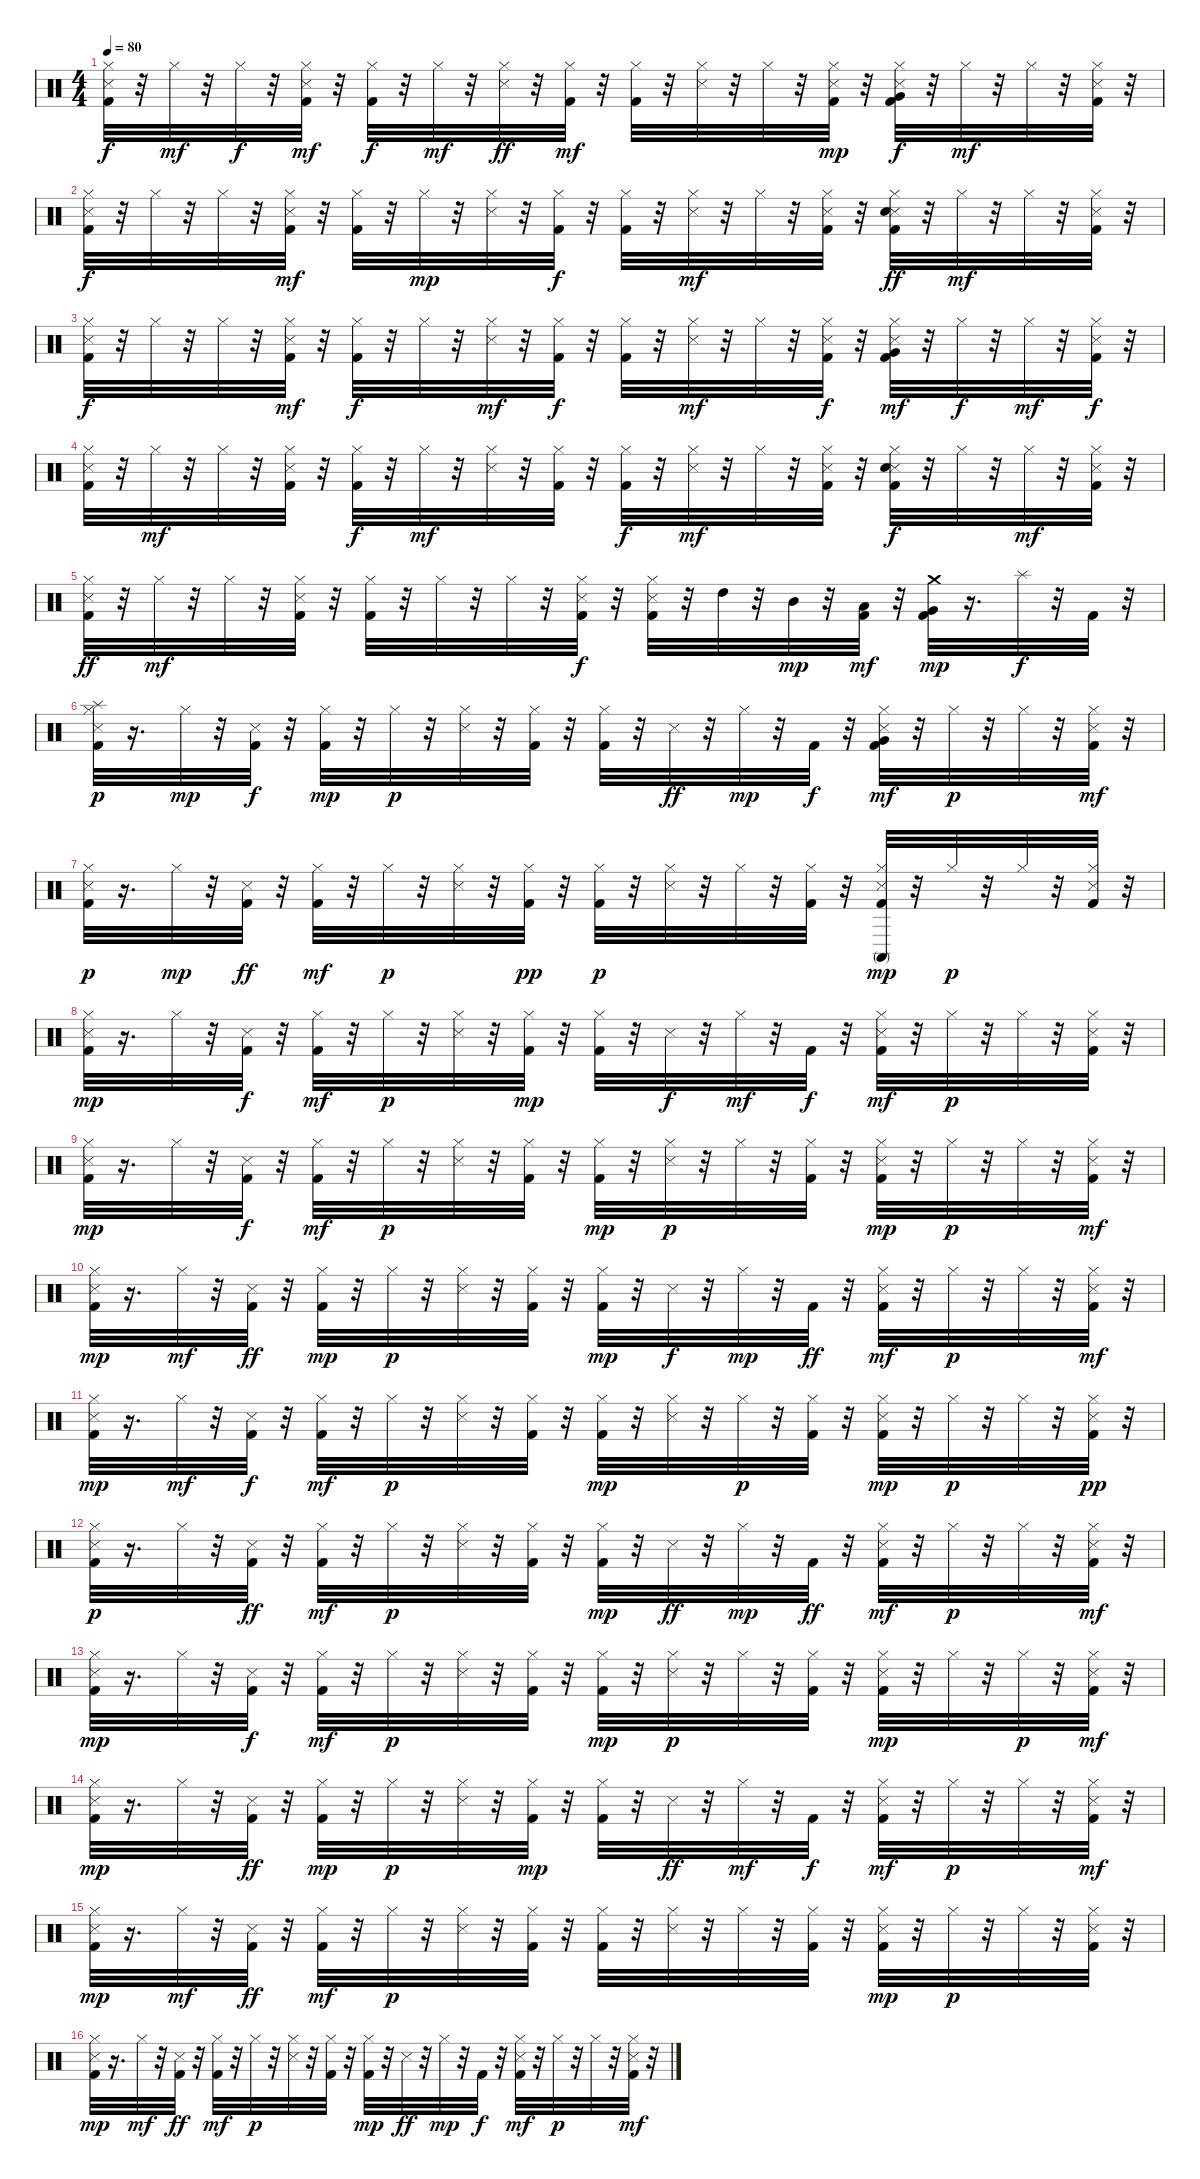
\track "" {instrument percussion}
\staff {score}
\articulation defaults
\ts (4 4)
\tempo 80
\clef neutral
\ks c
("Kick (hit) 2" "Snare (side stick) 3" "Hi-Hat (closed)").32{dy f} r.32 "Hi-Hat (closed)".32{dy mf} r.32 "Hi-Hat (closed)".32{dy f} r.32 ("Kick (hit) 2" "Snare (side stick) 3" "Hi-Hat (closed)").32{dy mf} r.32 ("Kick (hit) 2" "Hi-Hat (closed)").32{dy f} r.32 "Hi-Hat (closed)".32{dy mf} r.32 ("Snare (side stick) 3" "Hi-Hat (closed)").32{dy ff} r.32 ("Kick (hit) 2" "Hi-Hat (closed)").32{dy mf} r.32 ("Kick (hit) 2" "Hi-Hat (closed)").32 r.32 ("Snare (side stick) 3" "Hi-Hat (closed)").32 r.32 "Hi-Hat (closed)".32 r.32 ("Kick (hit) 2" "Snare (side stick) 3" "Hi-Hat (closed)").32{dy mp} r.32 ("Kick (hit) 2" "Snare (side stick) 3" "Very Low Tom (hit)" "Hi-Hat (closed)").32{dy f} r.32 "Hi-Hat (closed)".32{dy mf} r.32 "Hi-Hat (closed)".32 r.32 ("Kick (hit) 2" "Snare (side stick) 3" "Hi-Hat (closed)").32 r.32 |
("Kick (hit) 2" "Snare (side stick) 3" "Hi-Hat (closed)").32{dy f} r.32 "Hi-Hat (closed)".32 r.32 "Hi-Hat (closed)".32 r.32 ("Kick (hit) 2" "Snare (side stick) 3" "Hi-Hat (closed)").32{dy mf} r.32 ("Kick (hit) 2" "Hi-Hat (closed)").32 r.32 "Hi-Hat (closed)".32{dy mp} r.32 ("Snare (side stick) 3" "Hi-Hat (closed)").32 r.32 ("Kick (hit) 2" "Hi-Hat (closed)").32{dy f} r.32 ("Kick (hit) 2" "Hi-Hat (closed)").32 r.32 ("Snare (side stick) 3" "Hi-Hat (closed)").32{dy mf} r.32 "Hi-Hat (closed)".32 r.32 ("Kick (hit) 2" "Snare (side stick) 3" "Hi-Hat (closed)").32 r.32 ("Kick (hit) 2" "Snare (side stick) 3" "Snare (hit) 2" "Hi-Hat (closed)").32{dy ff} r.32 "Hi-Hat (closed)".32{dy mf} r.32 "Hi-Hat (closed)".32 r.32 ("Kick (hit) 2" "Snare (side stick) 3" "Hi-Hat (closed)").32 r.32 |
("Kick (hit) 2" "Snare (side stick) 3" "Hi-Hat (closed)").32{dy f} r.32 "Hi-Hat (closed)".32 r.32 "Hi-Hat (closed)".32 r.32 ("Kick (hit) 2" "Snare (side stick) 3" "Hi-Hat (closed)").32{dy mf} r.32 ("Kick (hit) 2" "Hi-Hat (closed)").32{dy f} r.32 "Hi-Hat (closed)".32 r.32 ("Snare (side stick) 3" "Hi-Hat (closed)").32{dy mf} r.32 ("Kick (hit) 2" "Hi-Hat (closed)").32{dy f} r.32 ("Kick (hit) 2" "Hi-Hat (closed)").32 r.32 ("Snare (side stick) 3" "Hi-Hat (closed)").32{dy mf} r.32 "Hi-Hat (closed)".32 r.32 ("Kick (hit) 2" "Snare (side stick) 3" "Hi-Hat (closed)").32{dy f} r.32 ("Kick (hit) 2" "Snare (side stick) 3" "Very Low Tom (hit)" "Hi-Hat (closed)").32{dy mf} r.32 "Hi-Hat (closed)".32{dy f} r.32 "Hi-Hat (closed)".32{dy mf} r.32 ("Kick (hit) 2" "Snare (side stick) 3" "Hi-Hat (closed)").32{dy f} r.32 |
("Kick (hit) 2" "Snare (side stick) 3" "Hi-Hat (closed)").32 r.32 "Hi-Hat (closed)".32{dy mf} r.32 "Hi-Hat (closed)".32 r.32 ("Kick (hit) 2" "Snare (side stick) 3" "Hi-Hat (closed)").32 r.32 ("Kick (hit) 2" "Hi-Hat (closed)").32{dy f} r.32 "Hi-Hat (closed)".32{dy mf} r.32 ("Snare (side stick) 3" "Hi-Hat (closed)").32 r.32 ("Kick (hit) 2" "Hi-Hat (closed)").32 r.32 ("Kick (hit) 2" "Hi-Hat (closed)").32{dy f} r.32 ("Snare (side stick) 3" "Hi-Hat (closed)").32{dy mf} r.32 "Hi-Hat (closed)".32 r.32 ("Kick (hit) 2" "Snare (side stick) 3" "Hi-Hat (closed)").32 r.32 ("Kick (hit) 2" "Snare (side stick) 3" "Snare (hit) 2" "Hi-Hat (closed)").32{dy f} r.32 "Hi-Hat (closed)".32 r.32 "Hi-Hat (closed)".32{dy mf} r.32 ("Kick (hit) 2" "Snare (side stick) 3" "Hi-Hat (closed)").32 r.32 |
("Kick (hit) 2" "Snare (side stick) 3" "Hi-Hat (closed)").32{dy ff} r.32 "Hi-Hat (closed)".32{dy mf} r.32 "Hi-Hat (closed)".32 r.32 ("Kick (hit) 2" "Snare (side stick) 3" "Hi-Hat (closed)").32 r.32 ("Kick (hit) 2" "Hi-Hat (closed)").32 r.32 "Hi-Hat (closed)".32 r.32 "Hi-Hat (closed)".32 r.32 ("Kick (hit) 2" "Snare (side stick) 3" "Hi-Hat (closed)").32{dy f} r.32 ("Kick (hit) 2" "Snare (side stick) 3" "Hi-Hat (closed)").32 r.32 "High Tom (hit)".32 r.32 "Mid Tom (hit)".32{dy mp} r.32 ("Kick (hit) 2" "Low Tom (hit)").32{dy mf} r.32 ("Kick (hit) 2" "Very Low Tom (hit)" "Crash medium (hit)").32{dy mp} r.16{d} "Splash (hit)".32{dy f} r.32 "Kick (hit) 2".32 r.32 |
("Kick (hit) 2" "Snare (side stick) 3" "Hi-Hat (closed)" "Splash (hit)").32{dy p} r.16{d} "Hi-Hat (closed)".32{dy mp} r.32 ("Kick (hit) 2" "Snare (side stick) 3").32{dy f} r.32 ("Kick (hit) 2" "Hi-Hat (closed)").32{dy mp} r.32 "Hi-Hat (closed)".32{dy p} r.32 ("Snare (side stick) 3" "Hi-Hat (closed)").32 r.32 ("Kick (hit) 2" "Hi-Hat (closed)").32 r.32 ("Kick (hit) 2" "Hi-Hat (closed)").32 r.32 "Snare (side stick) 3".32{dy ff} r.32 "Hi-Hat (closed)".32{dy mp} r.32 "Kick (hit) 2".32{dy f} r.32 ("Kick (hit) 2" "Snare (side stick) 3" "Hi-Hat (closed)" "Very Low Tom (hit)").32{dy mf} r.32 "Hi-Hat (closed)".32{dy p} r.32 "Hi-Hat (closed)".32 r.32 ("Kick (hit) 2" "Hi-Hat (closed)" "Snare (side stick) 3").32{dy mf} r.32 |
("Kick (hit) 2" "Snare (side stick) 3" "Hi-Hat (closed)").32{dy p} r.16{d} "Hi-Hat (closed)".32{dy mp} r.32 ("Kick (hit) 2" "Snare (side stick) 3").32{dy ff} r.32 ("Kick (hit) 2" "Hi-Hat (closed)").32{dy mf} r.32 "Hi-Hat (closed)".32{dy p} r.32 ("Snare (side stick) 3" "Hi-Hat (closed)").32 r.32 ("Kick (hit) 2" "Hi-Hat (closed)").32{dy pp} r.32 ("Kick (hit) 2" "Hi-Hat (closed)").32{dy p} r.32 ("Snare (side stick) 3" "Hi-Hat (closed)").32 r.32 "Hi-Hat (closed)".32 r.32 ("Kick (hit) 2" "Hi-Hat (closed)").32 r.32 ("Kick (hit) 2" "Snare (side stick) 3" "Hi-Hat (closed)" "Conga high (mute)").32{dy mp} r.32 "Hi-Hat (closed)".32{dy p} r.32 "Hi-Hat (closed)".32 r.32 ("Kick (hit) 2" "Hi-Hat (closed)" "Snare (side stick) 3").32 r.32 |
("Kick (hit) 2" "Snare (side stick) 3" "Hi-Hat (closed)").32{dy mp} r.16{d} "Hi-Hat (closed)".32 r.32 ("Kick (hit) 2" "Snare (side stick) 3").32{dy f} r.32 ("Kick (hit) 2" "Hi-Hat (closed)").32{dy mf} r.32 "Hi-Hat (closed)".32{dy p} r.32 ("Snare (side stick) 3" "Hi-Hat (closed)").32 r.32 ("Kick (hit) 2" "Hi-Hat (closed)").32{dy mp} r.32 ("Kick (hit) 2" "Hi-Hat (closed)").32 r.32 "Snare (side stick) 3".32{dy f} r.32 "Hi-Hat (closed)".32{dy mf} r.32 "Kick (hit) 2".32{dy f} r.32 ("Kick (hit) 2" "Snare (side stick) 3" "Hi-Hat (closed)").32{dy mf} r.32 "Hi-Hat (closed)".32{dy p} r.32 "Hi-Hat (closed)".32 r.32 ("Kick (hit) 2" "Hi-Hat (closed)" "Snare (side stick) 3").32 r.32 |
("Kick (hit) 2" "Snare (side stick) 3" "Hi-Hat (closed)").32{dy mp} r.16{d} "Hi-Hat (closed)".32 r.32 ("Kick (hit) 2" "Snare (side stick) 3").32{dy f} r.32 ("Kick (hit) 2" "Hi-Hat (closed)").32{dy mf} r.32 "Hi-Hat (closed)".32{dy p} r.32 ("Snare (side stick) 3" "Hi-Hat (closed)").32 r.32 ("Kick (hit) 2" "Hi-Hat (closed)").32 r.32 ("Kick (hit) 2" "Hi-Hat (closed)").32{dy mp} r.32 ("Snare (side stick) 3" "Hi-Hat (closed)").32{dy p} r.32 "Hi-Hat (closed)".32 r.32 ("Kick (hit) 2" "Hi-Hat (closed)").32 r.32 ("Kick (hit) 2" "Snare (side stick) 3" "Hi-Hat (closed)").32{dy mp} r.32 "Hi-Hat (closed)".32{dy p} r.32 "Hi-Hat (closed)".32 r.32 ("Kick (hit) 2" "Hi-Hat (closed)" "Snare (side stick) 3").32{dy mf} r.32 |
("Kick (hit) 2" "Snare (side stick) 3" "Hi-Hat (closed)").32{dy mp} r.16{d} "Hi-Hat (closed)".32{dy mf} r.32 ("Kick (hit) 2" "Snare (side stick) 3").32{dy ff} r.32 ("Kick (hit) 2" "Hi-Hat (closed)").32{dy mp} r.32 "Hi-Hat (closed)".32{dy p} r.32 ("Snare (side stick) 3" "Hi-Hat (closed)").32 r.32 ("Kick (hit) 2" "Hi-Hat (closed)").32 r.32 ("Kick (hit) 2" "Hi-Hat (closed)").32{dy mp} r.32 "Snare (side stick) 3".32{dy f} r.32 "Hi-Hat (closed)".32{dy mp} r.32 "Kick (hit) 2".32{dy ff} r.32 ("Kick (hit) 2" "Snare (side stick) 3" "Hi-Hat (closed)").32{dy mf} r.32 "Hi-Hat (closed)".32{dy p} r.32 "Hi-Hat (closed)".32 r.32 ("Kick (hit) 2" "Hi-Hat (closed)" "Snare (side stick) 3").32{dy mf} r.32 |
("Kick (hit) 2" "Snare (side stick) 3" "Hi-Hat (closed)").32{dy mp} r.16{d} "Hi-Hat (closed)".32{dy mf} r.32 ("Kick (hit) 2" "Snare (side stick) 3").32{dy f} r.32 ("Kick (hit) 2" "Hi-Hat (closed)").32{dy mf} r.32 "Hi-Hat (closed)".32{dy p} r.32 ("Snare (side stick) 3" "Hi-Hat (closed)").32 r.32 ("Kick (hit) 2" "Hi-Hat (closed)").32 r.32 ("Kick (hit) 2" "Hi-Hat (closed)").32{dy mp} r.32 ("Snare (side stick) 3" "Hi-Hat (closed)").32 r.32 "Hi-Hat (closed)".32{dy p} r.32 ("Kick (hit) 2" "Hi-Hat (closed)").32 r.32 ("Kick (hit) 2" "Snare (side stick) 3" "Hi-Hat (closed)").32{dy mp} r.32 "Hi-Hat (closed)".32{dy p} r.32 "Hi-Hat (closed)".32 r.32 ("Kick (hit) 2" "Hi-Hat (closed)" "Snare (side stick) 3").32{dy pp} r.32 |
("Kick (hit) 2" "Snare (side stick) 3" "Hi-Hat (closed)").32{dy p} r.16{d} "Hi-Hat (closed)".32 r.32 ("Kick (hit) 2" "Snare (side stick) 3").32{dy ff} r.32 ("Kick (hit) 2" "Hi-Hat (closed)").32{dy mf} r.32 "Hi-Hat (closed)".32{dy p} r.32 ("Snare (side stick) 3" "Hi-Hat (closed)").32 r.32 ("Kick (hit) 2" "Hi-Hat (closed)").32 r.32 ("Kick (hit) 2" "Hi-Hat (closed)").32{dy mp} r.32 "Snare (side stick) 3".32{dy ff} r.32 "Hi-Hat (closed)".32{dy mp} r.32 "Kick (hit) 2".32{dy ff} r.32 ("Kick (hit) 2" "Snare (side stick) 3" "Hi-Hat (closed)").32{dy mf} r.32 "Hi-Hat (closed)".32{dy p} r.32 "Hi-Hat (closed)".32 r.32 ("Kick (hit) 2" "Hi-Hat (closed)" "Snare (side stick) 3").32{dy mf} r.32 |
("Kick (hit) 2" "Snare (side stick) 3" "Hi-Hat (closed)").32{dy mp} r.16{d} "Hi-Hat (closed)".32 r.32 ("Kick (hit) 2" "Snare (side stick) 3").32{dy f} r.32 ("Kick (hit) 2" "Hi-Hat (closed)").32{dy mf} r.32 "Hi-Hat (closed)".32{dy p} r.32 ("Snare (side stick) 3" "Hi-Hat (closed)").32 r.32 ("Kick (hit) 2" "Hi-Hat (closed)").32 r.32 ("Kick (hit) 2" "Hi-Hat (closed)").32{dy mp} r.32 ("Snare (side stick) 3" "Hi-Hat (closed)").32{dy p} r.32 "Hi-Hat (closed)".32 r.32 ("Kick (hit) 2" "Hi-Hat (closed)").32 r.32 ("Kick (hit) 2" "Snare (side stick) 3" "Hi-Hat (closed)").32{dy mp} r.32 "Hi-Hat (closed)".32 r.32 "Hi-Hat (closed)".32{dy p} r.32 ("Kick (hit) 2" "Hi-Hat (closed)" "Snare (side stick) 3").32{dy mf} r.32 |
("Kick (hit) 2" "Snare (side stick) 3" "Hi-Hat (closed)").32{dy mp} r.16{d} "Hi-Hat (closed)".32 r.32 ("Kick (hit) 2" "Snare (side stick) 3").32{dy ff} r.32 ("Kick (hit) 2" "Hi-Hat (closed)").32{dy mp} r.32 "Hi-Hat (closed)".32{dy p} r.32 ("Snare (side stick) 3" "Hi-Hat (closed)").32 r.32 ("Kick (hit) 2" "Hi-Hat (closed)").32{dy mp} r.32 ("Kick (hit) 2" "Hi-Hat (closed)").32 r.32 "Snare (side stick) 3".32{dy ff} r.32 "Hi-Hat (closed)".32{dy mf} r.32 "Kick (hit) 2".32{dy f} r.32 ("Kick (hit) 2" "Snare (side stick) 3" "Hi-Hat (closed)").32{dy mf} r.32 "Hi-Hat (closed)".32{dy p} r.32 "Hi-Hat (closed)".32 r.32 ("Kick (hit) 2" "Hi-Hat (closed)" "Snare (side stick) 3").32{dy mf} r.32 |
("Kick (hit) 2" "Snare (side stick) 3" "Hi-Hat (closed)").32{dy mp} r.16{d} "Hi-Hat (closed)".32{dy mf} r.32 ("Kick (hit) 2" "Snare (side stick) 3").32{dy ff} r.32 ("Kick (hit) 2" "Hi-Hat (closed)").32{dy mf} r.32 "Hi-Hat (closed)".32{dy p} r.32 ("Snare (side stick) 3" "Hi-Hat (closed)").32 r.32 ("Kick (hit) 2" "Hi-Hat (closed)").32 r.32 ("Kick (hit) 2" "Hi-Hat (closed)").32 r.32 ("Snare (side stick) 3" "Hi-Hat (closed)").32 r.32 "Hi-Hat (closed)".32 r.32 ("Kick (hit) 2" "Hi-Hat (closed)").32 r.32 ("Kick (hit) 2" "Snare (side stick) 3" "Hi-Hat (closed)").32{dy mp} r.32 "Hi-Hat (closed)".32{dy p} r.32 "Hi-Hat (closed)".32 r.32 ("Kick (hit) 2" "Hi-Hat (closed)" "Snare (side stick) 3").32 r.32 |
("Kick (hit) 2" "Snare (side stick) 3" "Hi-Hat (closed)").32{dy mp} r.16{d} "Hi-Hat (closed)".32{dy mf} r.32 ("Kick (hit) 2" "Snare (side stick) 3").32{dy ff} r.32 ("Kick (hit) 2" "Hi-Hat (closed)").32{dy mf} r.32 "Hi-Hat (closed)".32{dy p} r.32 ("Snare (side stick) 3" "Hi-Hat (closed)").32 r.32 ("Kick (hit) 2" "Hi-Hat (closed)").32 r.32 ("Kick (hit) 2" "Hi-Hat (closed)").32{dy mp} r.32 "Snare (side stick) 3".32{dy ff} r.32 "Hi-Hat (closed)".32{dy mp} r.32 "Kick (hit) 2".32{dy f} r.32 ("Kick (hit) 2" "Snare (side stick) 3" "Hi-Hat (closed)").32{dy mf} r.32 "Hi-Hat (closed)".32{dy p} r.32 "Hi-Hat (closed)".32 r.32 ("Kick (hit) 2" "Hi-Hat (closed)" "Snare (side stick) 3").32{dy mf} r.32
